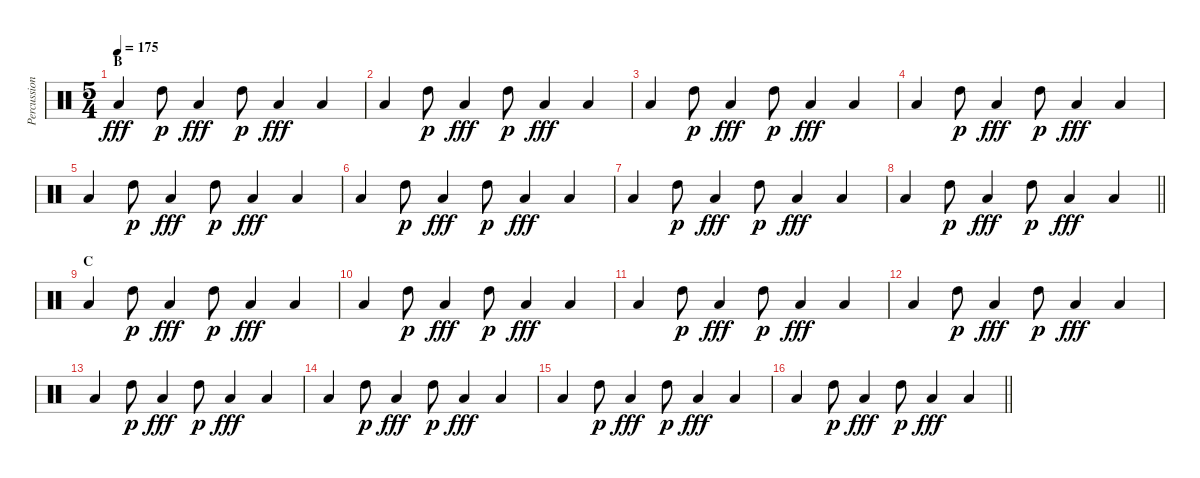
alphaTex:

\track ("Percussion" "Percussion") {instrument percussion}
\staff {score}
\articulation defaults
\ts (5 4)
\section ("" "B")
\tempo 175
\clef neutral
\ks c "Low Tom (hit)".4{dy fff} "High Tom (hit)".8{dy p} "Low Tom (hit)".4{dy fff} "High Tom (hit)".8{dy p} "Low Tom (hit)".4{dy fff} "Low Tom (hit)".4
|
"Low Tom (hit)".4 "High Tom (hit)".8{dy p} "Low Tom (hit)".4{dy fff} "High Tom (hit)".8{dy p} "Low Tom (hit)".4{dy fff} "Low Tom (hit)".4 |
"Low Tom (hit)".4 "High Tom (hit)".8{dy p} "Low Tom (hit)".4{dy fff} "High Tom (hit)".8{dy p} "Low Tom (hit)".4{dy fff} "Low Tom (hit)".4 |
"Low Tom (hit)".4 "High Tom (hit)".8{dy p} "Low Tom (hit)".4{dy fff} "High Tom (hit)".8{dy p} "Low Tom (hit)".4{dy fff} "Low Tom (hit)".4 |
"Low Tom (hit)".4 "High Tom (hit)".8{dy p} "Low Tom (hit)".4{dy fff} "High Tom (hit)".8{dy p} "Low Tom (hit)".4{dy fff} "Low Tom (hit)".4 |
"Low Tom (hit)".4 "High Tom (hit)".8{dy p} "Low Tom (hit)".4{dy fff} "High Tom (hit)".8{dy p} "Low Tom (hit)".4{dy fff} "Low Tom (hit)".4 |
"Low Tom (hit)".4 "High Tom (hit)".8{dy p} "Low Tom (hit)".4{dy fff} "High Tom (hit)".8{dy p} "Low Tom (hit)".4{dy fff} "Low Tom (hit)".4 |
\barLineRight lightlight "Low Tom (hit)".4 "High Tom (hit)".8{dy p} "Low Tom (hit)".4{dy fff} "High Tom (hit)".8{dy p} "Low Tom (hit)".4{dy fff} "Low Tom (hit)".4
|
\section ("" "C")
"Low Tom (hit)".4 "High Tom (hit)".8{dy p} "Low Tom (hit)".4{dy fff} "High Tom (hit)".8{dy p} "Low Tom (hit)".4{dy fff} "Low Tom (hit)".4 |
"Low Tom (hit)".4 "High Tom (hit)".8{dy p} "Low Tom (hit)".4{dy fff} "High Tom (hit)".8{dy p} "Low Tom (hit)".4{dy fff} "Low Tom (hit)".4 |
"Low Tom (hit)".4 "High Tom (hit)".8{dy p} "Low Tom (hit)".4{dy fff} "High Tom (hit)".8{dy p} "Low Tom (hit)".4{dy fff} "Low Tom (hit)".4 |
"Low Tom (hit)".4 "High Tom (hit)".8{dy p} "Low Tom (hit)".4{dy fff} "High Tom (hit)".8{dy p} "Low Tom (hit)".4{dy fff} "Low Tom (hit)".4 |
"Low Tom (hit)".4 "High Tom (hit)".8{dy p} "Low Tom (hit)".4{dy fff} "High Tom (hit)".8{dy p} "Low Tom (hit)".4{dy fff} "Low Tom (hit)".4 |
"Low Tom (hit)".4 "High Tom (hit)".8{dy p} "Low Tom (hit)".4{dy fff} "High Tom (hit)".8{dy p} "Low Tom (hit)".4{dy fff} "Low Tom (hit)".4 |
"Low Tom (hit)".4 "High Tom (hit)".8{dy p} "Low Tom (hit)".4{dy fff} "High Tom (hit)".8{dy p} "Low Tom (hit)".4{dy fff} "Low Tom (hit)".4 |
\barLineRight lightlight "Low Tom (hit)".4 "High Tom (hit)".8{dy p} "Low Tom (hit)".4{dy fff} "High Tom (hit)".8{dy p} "Low Tom (hit)".4{dy fff} "Low Tom (hit)".4
